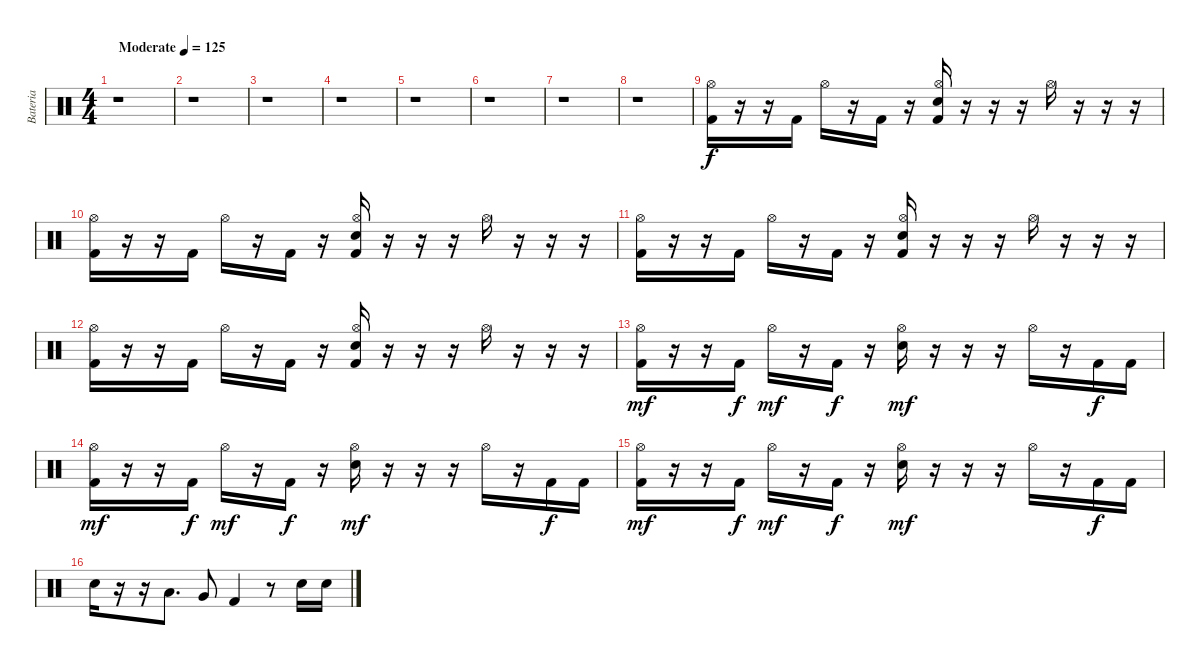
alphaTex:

\track ("Bateria" "Bateria") {instrument percussion}
\staff {score}
\articulation defaults
\ts (4 4)
\tempo (125 "Moderate")
\clef neutral
\ks c
r.1{dy f} |
r.1 |
r.1 |
r.1 |
r.1 |
r.1 |
r.1 |
r.1 |
("Kick (hit) 2" "Hi-Hat (open)").16 r.16 r.16 "Kick (hit) 2".16 "Hi-Hat (open)".16 r.16 "Kick (hit) 2".16 r.16 ("Kick (hit) 2" "Electric Snare (hit)" "Hi-Hat (open)").16 r.16 r.16 r.16 "Hi-Hat (open)".16 r.16 r.16 r.16 |
("Kick (hit) 2" "Hi-Hat (open)").16 r.16 r.16 "Kick (hit) 2".16 "Hi-Hat (open)".16 r.16 "Kick (hit) 2".16 r.16 ("Kick (hit) 2" "Electric Snare (hit)" "Hi-Hat (open)").16 r.16 r.16 r.16 "Hi-Hat (open)".16 r.16 r.16 r.16 |
("Kick (hit) 2" "Hi-Hat (open)").16 r.16 r.16 "Kick (hit) 2".16 "Hi-Hat (open)".16 r.16 "Kick (hit) 2".16 r.16 ("Kick (hit) 2" "Electric Snare (hit)" "Hi-Hat (open)").16 r.16 r.16 r.16 "Hi-Hat (open)".16 r.16 r.16 r.16 |
("Kick (hit) 2" "Hi-Hat (open)").16 r.16 r.16 "Kick (hit) 2".16 "Hi-Hat (open)".16 r.16 "Kick (hit) 2".16 r.16 ("Kick (hit) 2" "Electric Snare (hit)" "Hi-Hat (open)").16 r.16 r.16 r.16 "Hi-Hat (open)".16 r.16 r.16 r.16 |
("Kick (hit) 2" "Hi-Hat (open)").16{dy mf} r.16 r.16 "Kick (hit) 2".16{dy f} "Hi-Hat (open)".16{dy mf} r.16 "Kick (hit) 2".16{dy f} r.16 ("Electric Snare (hit)" "Hi-Hat (open)").16{dy mf} r.16 r.16 r.16 "Hi-Hat (open)".16 r.16 "Kick (hit) 2".16{dy f} "Kick (hit) 2".16 |
("Kick (hit) 2" "Hi-Hat (open)").16{dy mf} r.16 r.16 "Kick (hit) 2".16{dy f} "Hi-Hat (open)".16{dy mf} r.16 "Kick (hit) 2".16{dy f} r.16 ("Electric Snare (hit)" "Hi-Hat (open)").16{dy mf} r.16 r.16 r.16 "Hi-Hat (open)".16 r.16 "Kick (hit) 2".16{dy f} "Kick (hit) 2".16 |
("Kick (hit) 2" "Hi-Hat (open)").16{dy mf} r.16 r.16 "Kick (hit) 2".16{dy f} "Hi-Hat (open)".16{dy mf} r.16 "Kick (hit) 2".16{dy f} r.16 ("Electric Snare (hit)" "Hi-Hat (open)").16{dy mf} r.16 r.16 r.16 "Hi-Hat (open)".16 r.16 "Kick (hit) 2".16{dy f} "Kick (hit) 2".16 |
"Electric Snare (hit)".16 r.16 r.16 "Low Tom (hit)".8{d} "Very Low Tom (hit)".8 "Kick (hit) 2".4 r.8 "Electric Snare (hit)".16 "Electric Snare (hit)".16
